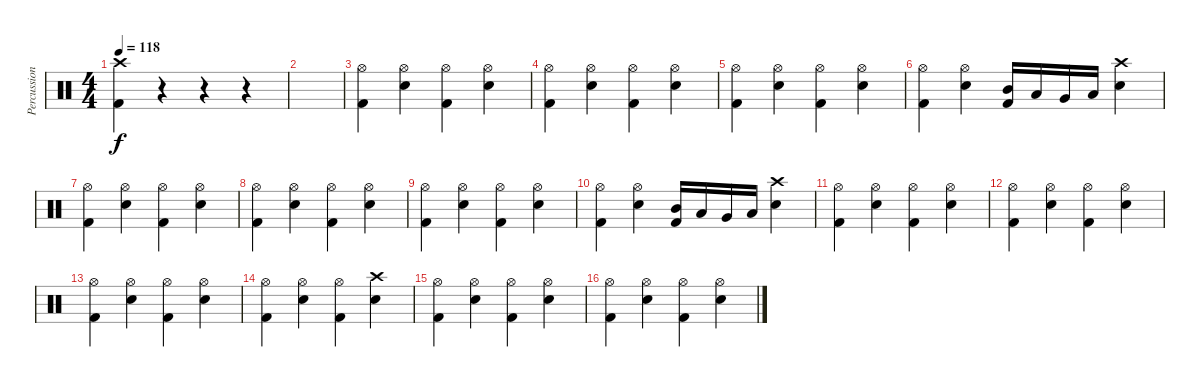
\track ("Percussion" "Percussion") {instrument percussion}
\staff {score}
\articulation defaults
\ts (4 4)
\tempo 118
\clef neutral
\ks c
("Crash high (hit)" "Kick (hit) 2").4{dy f} r.4 r.4 r.4 |
|
("Hi-Hat (open)" "Kick (hit) 2").4 ("Hi-Hat (open)" "Snare (hit) 2").4 ("Hi-Hat (open)" "Kick (hit) 2").4 ("Hi-Hat (open)" "Snare (hit) 2").4 |
("Hi-Hat (open)" "Kick (hit) 2").4 ("Hi-Hat (open)" "Snare (hit) 2").4 ("Hi-Hat (open)" "Kick (hit) 2").4 ("Hi-Hat (open)" "Snare (hit) 2").4 |
("Hi-Hat (open)" "Kick (hit) 2").4 ("Hi-Hat (open)" "Snare (hit) 2").4 ("Hi-Hat (open)" "Kick (hit) 2").4 ("Hi-Hat (open)" "Snare (hit) 2").4 |
("Hi-Hat (open)" "Kick (hit) 2").4 ("Hi-Hat (open)" "Snare (hit) 2").4 ("Mid Tom (hit)" "Kick (hit) 2").16 "Low Tom (hit)".16 "Very Low Tom (hit)".16 "Low Floor Tom (hit)".16 ("Crash high (hit)" "Snare (hit) 2").4 |
("Hi-Hat (open)" "Kick (hit) 2").4 ("Hi-Hat (open)" "Snare (hit) 2").4 ("Hi-Hat (open)" "Kick (hit) 2").4 ("Hi-Hat (open)" "Snare (hit) 2").4 |
("Hi-Hat (open)" "Kick (hit) 2").4 ("Hi-Hat (open)" "Snare (hit) 2").4 ("Hi-Hat (open)" "Kick (hit) 2").4 ("Hi-Hat (open)" "Snare (hit) 2").4 |
("Hi-Hat (open)" "Kick (hit) 2").4 ("Hi-Hat (open)" "Snare (hit) 2").4 ("Hi-Hat (open)" "Kick (hit) 2").4 ("Hi-Hat (open)" "Snare (hit) 2").4 |
("Hi-Hat (open)" "Kick (hit) 2").4 ("Hi-Hat (open)" "Snare (hit) 2").4 ("Mid Tom (hit)" "Kick (hit) 2").16 "Low Tom (hit)".16 "Very Low Tom (hit)".16 "Low Floor Tom (hit)".16 ("Crash high (hit)" "Snare (hit) 2").4 |
("Hi-Hat (open)" "Kick (hit) 2").4 ("Hi-Hat (open)" "Snare (hit) 2").4 ("Hi-Hat (open)" "Kick (hit) 2").4 ("Hi-Hat (open)" "Snare (hit) 2").4 |
("Hi-Hat (open)" "Kick (hit) 2").4 ("Hi-Hat (open)" "Snare (hit) 2").4 ("Hi-Hat (open)" "Kick (hit) 2").4 ("Hi-Hat (open)" "Snare (hit) 2").4 |
("Hi-Hat (open)" "Kick (hit) 2").4 ("Hi-Hat (open)" "Snare (hit) 2").4 ("Hi-Hat (open)" "Kick (hit) 2").4 ("Hi-Hat (open)" "Snare (hit) 2").4 |
("Hi-Hat (open)" "Kick (hit) 2").4 ("Hi-Hat (open)" "Snare (hit) 2").4 ("Hi-Hat (open)" "Kick (hit) 2").4 ("Crash high (hit)" "Snare (hit) 2").4 |
("Hi-Hat (open)" "Kick (hit) 2").4 ("Hi-Hat (open)" "Snare (hit) 2").4 ("Hi-Hat (open)" "Kick (hit) 2").4 ("Hi-Hat (open)" "Snare (hit) 2").4 |
("Hi-Hat (open)" "Kick (hit) 2").4 ("Hi-Hat (open)" "Snare (hit) 2").4 ("Hi-Hat (open)" "Kick (hit) 2").4 ("Hi-Hat (open)" "Snare (hit) 2").4
